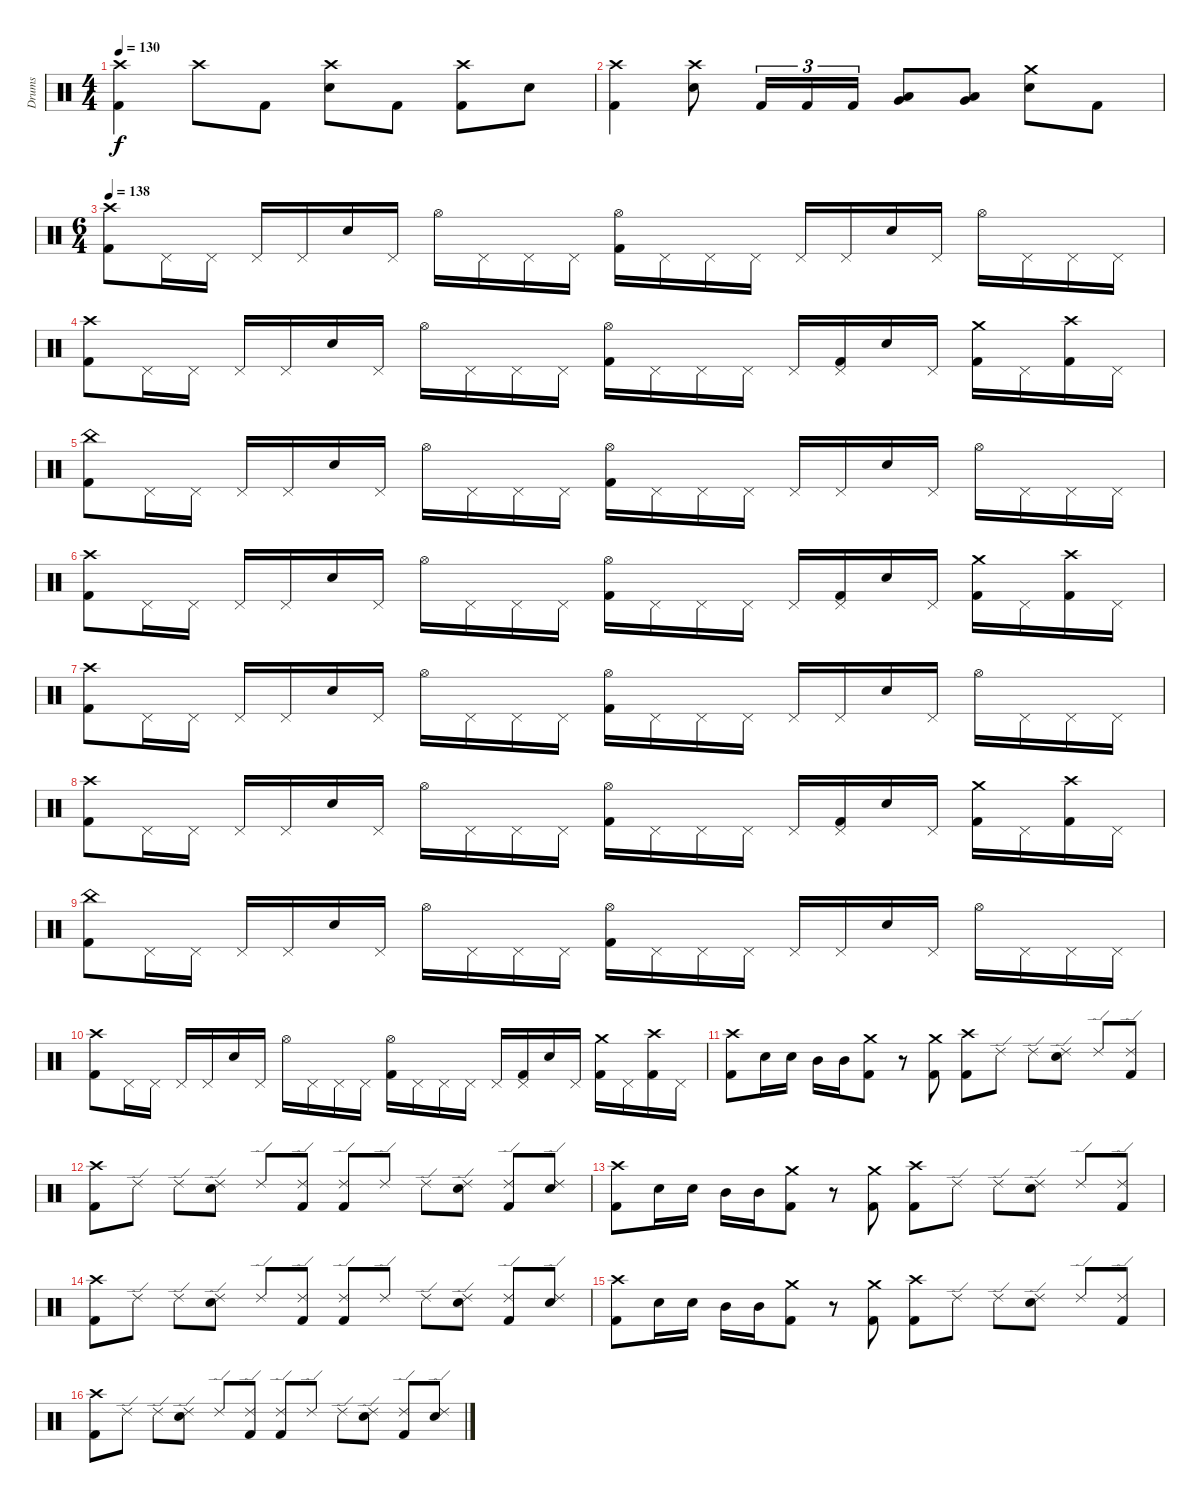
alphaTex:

\track ("Drums" "Drums") {instrument percussion}
\staff {score}
\articulation defaults
\ts (4 4)
\tempo 130
\clef neutral
\ks c
("Crash high (hit)" "Kick (hit) 2").4{dy f} "Crash high (hit)".8 "Kick (hit) 2".8 ("Crash high (hit)" "Electric Snare (hit)").8 "Kick (hit) 2".8 ("Crash high (hit)" "Kick (hit) 2").8 "Electric Snare (hit)".8 |
("Crash high (hit)" "Kick (hit) 2").4 ("Crash high (hit)" "Electric Snare (hit)").8 "Kick (hit) 2".16{tu (3 2)} "Kick (hit) 2".16{tu (3 2)} "Kick (hit) 2".16{tu (3 2)} ("Low Tom (hit)" "Very Low Tom (hit)").8 ("Low Tom (hit)" "Very Low Tom (hit)").8 ("Crash medium (hit)" "Electric Snare (hit)").8 "Kick (hit) 2".8 |
\ts (6 4)
\tempo 138
("Crash high (hit)" "Kick (hit) 2").8 "Pedal Hi-Hat (hit)".16 "Pedal Hi-Hat (hit)".16 "Pedal Hi-Hat (hit)".16 "Pedal Hi-Hat (hit)".16 "Electric Snare (hit)".16 "Pedal Hi-Hat (hit)".16 "Hi-Hat (open)".16 "Pedal Hi-Hat (hit)".16 "Pedal Hi-Hat (hit)".16 "Pedal Hi-Hat (hit)".16 ("Hi-Hat (open)" "Kick (hit) 2").16 "Pedal Hi-Hat (hit)".16 "Pedal Hi-Hat (hit)".16 "Pedal Hi-Hat (hit)".16 "Pedal Hi-Hat (hit)".16 "Pedal Hi-Hat (hit)".16 "Electric Snare (hit)".16 "Pedal Hi-Hat (hit)".16 "Hi-Hat (open)".16 "Pedal Hi-Hat (hit)".16 "Pedal Hi-Hat (hit)".16 "Pedal Hi-Hat (hit)".16 |
("Crash high (hit)" "Kick (hit) 2").8 "Pedal Hi-Hat (hit)".16 "Pedal Hi-Hat (hit)".16 "Pedal Hi-Hat (hit)".16 "Pedal Hi-Hat (hit)".16 "Electric Snare (hit)".16 "Pedal Hi-Hat (hit)".16 "Hi-Hat (open)".16 "Pedal Hi-Hat (hit)".16 "Pedal Hi-Hat (hit)".16 "Pedal Hi-Hat (hit)".16 ("Hi-Hat (open)" "Kick (hit) 2").16 "Pedal Hi-Hat (hit)".16 "Pedal Hi-Hat (hit)".16 "Pedal Hi-Hat (hit)".16 "Pedal Hi-Hat (hit)".16 ("Pedal Hi-Hat (hit)" "Kick (hit) 2").16 "Electric Snare (hit)".16 "Pedal Hi-Hat (hit)".16 ("Crash medium (hit)" "Kick (hit) 2").16 "Pedal Hi-Hat (hit)".16 ("Crash high (hit)" "Kick (hit) 2").16 "Pedal Hi-Hat (hit)".16 |
("China (hit)" "Kick (hit) 2").8 "Pedal Hi-Hat (hit)".16 "Pedal Hi-Hat (hit)".16 "Pedal Hi-Hat (hit)".16 "Pedal Hi-Hat (hit)".16 "Electric Snare (hit)".16 "Pedal Hi-Hat (hit)".16 "Hi-Hat (open)".16 "Pedal Hi-Hat (hit)".16 "Pedal Hi-Hat (hit)".16 "Pedal Hi-Hat (hit)".16 ("Hi-Hat (open)" "Kick (hit) 2").16 "Pedal Hi-Hat (hit)".16 "Pedal Hi-Hat (hit)".16 "Pedal Hi-Hat (hit)".16 "Pedal Hi-Hat (hit)".16 "Pedal Hi-Hat (hit)".16 "Electric Snare (hit)".16 "Pedal Hi-Hat (hit)".16 "Hi-Hat (open)".16 "Pedal Hi-Hat (hit)".16 "Pedal Hi-Hat (hit)".16 "Pedal Hi-Hat (hit)".16 |
("Crash high (hit)" "Kick (hit) 2").8 "Pedal Hi-Hat (hit)".16 "Pedal Hi-Hat (hit)".16 "Pedal Hi-Hat (hit)".16 "Pedal Hi-Hat (hit)".16 "Electric Snare (hit)".16 "Pedal Hi-Hat (hit)".16 "Hi-Hat (open)".16 "Pedal Hi-Hat (hit)".16 "Pedal Hi-Hat (hit)".16 "Pedal Hi-Hat (hit)".16 ("Hi-Hat (open)" "Kick (hit) 2").16 "Pedal Hi-Hat (hit)".16 "Pedal Hi-Hat (hit)".16 "Pedal Hi-Hat (hit)".16 "Pedal Hi-Hat (hit)".16 ("Pedal Hi-Hat (hit)" "Kick (hit) 2").16 "Electric Snare (hit)".16 "Pedal Hi-Hat (hit)".16 ("Crash medium (hit)" "Kick (hit) 2").16 "Pedal Hi-Hat (hit)".16 ("Crash high (hit)" "Kick (hit) 2").16 "Pedal Hi-Hat (hit)".16 |
("Crash high (hit)" "Kick (hit) 2").8 "Pedal Hi-Hat (hit)".16 "Pedal Hi-Hat (hit)".16 "Pedal Hi-Hat (hit)".16 "Pedal Hi-Hat (hit)".16 "Electric Snare (hit)".16 "Pedal Hi-Hat (hit)".16 "Hi-Hat (open)".16 "Pedal Hi-Hat (hit)".16 "Pedal Hi-Hat (hit)".16 "Pedal Hi-Hat (hit)".16 ("Hi-Hat (open)" "Kick (hit) 2").16 "Pedal Hi-Hat (hit)".16 "Pedal Hi-Hat (hit)".16 "Pedal Hi-Hat (hit)".16 "Pedal Hi-Hat (hit)".16 "Pedal Hi-Hat (hit)".16 "Electric Snare (hit)".16 "Pedal Hi-Hat (hit)".16 "Hi-Hat (open)".16 "Pedal Hi-Hat (hit)".16 "Pedal Hi-Hat (hit)".16 "Pedal Hi-Hat (hit)".16 |
("Crash high (hit)" "Kick (hit) 2").8 "Pedal Hi-Hat (hit)".16 "Pedal Hi-Hat (hit)".16 "Pedal Hi-Hat (hit)".16 "Pedal Hi-Hat (hit)".16 "Electric Snare (hit)".16 "Pedal Hi-Hat (hit)".16 "Hi-Hat (open)".16 "Pedal Hi-Hat (hit)".16 "Pedal Hi-Hat (hit)".16 "Pedal Hi-Hat (hit)".16 ("Hi-Hat (open)" "Kick (hit) 2").16 "Pedal Hi-Hat (hit)".16 "Pedal Hi-Hat (hit)".16 "Pedal Hi-Hat (hit)".16 "Pedal Hi-Hat (hit)".16 ("Pedal Hi-Hat (hit)" "Kick (hit) 2").16 "Electric Snare (hit)".16 "Pedal Hi-Hat (hit)".16 ("Crash medium (hit)" "Kick (hit) 2").16 "Pedal Hi-Hat (hit)".16 ("Crash high (hit)" "Kick (hit) 2").16 "Pedal Hi-Hat (hit)".16 |
("China (hit)" "Kick (hit) 2").8 "Pedal Hi-Hat (hit)".16 "Pedal Hi-Hat (hit)".16 "Pedal Hi-Hat (hit)".16 "Pedal Hi-Hat (hit)".16 "Electric Snare (hit)".16 "Pedal Hi-Hat (hit)".16 "Hi-Hat (open)".16 "Pedal Hi-Hat (hit)".16 "Pedal Hi-Hat (hit)".16 "Pedal Hi-Hat (hit)".16 ("Hi-Hat (open)" "Kick (hit) 2").16 "Pedal Hi-Hat (hit)".16 "Pedal Hi-Hat (hit)".16 "Pedal Hi-Hat (hit)".16 "Pedal Hi-Hat (hit)".16 "Pedal Hi-Hat (hit)".16 "Electric Snare (hit)".16 "Pedal Hi-Hat (hit)".16 "Hi-Hat (open)".16 "Pedal Hi-Hat (hit)".16 "Pedal Hi-Hat (hit)".16 "Pedal Hi-Hat (hit)".16 |
("Crash high (hit)" "Kick (hit) 2").8 "Pedal Hi-Hat (hit)".16 "Pedal Hi-Hat (hit)".16 "Pedal Hi-Hat (hit)".16 "Pedal Hi-Hat (hit)".16 "Electric Snare (hit)".16 "Pedal Hi-Hat (hit)".16 "Hi-Hat (open)".16 "Pedal Hi-Hat (hit)".16 "Pedal Hi-Hat (hit)".16 "Pedal Hi-Hat (hit)".16 ("Hi-Hat (open)" "Kick (hit) 2").16 "Pedal Hi-Hat (hit)".16 "Pedal Hi-Hat (hit)".16 "Pedal Hi-Hat (hit)".16 "Pedal Hi-Hat (hit)".16 ("Pedal Hi-Hat (hit)" "Kick (hit) 2").16 "Electric Snare (hit)".16 "Pedal Hi-Hat (hit)".16 ("Crash medium (hit)" "Kick (hit) 2").16 "Pedal Hi-Hat (hit)".16 ("Crash high (hit)" "Kick (hit) 2").16 "Pedal Hi-Hat (hit)".16 |
("Crash high (hit)" "Kick (hit) 2").8 "Electric Snare (hit)".16 "Electric Snare (hit)".16 "Mid Tom (hit)".16 "Mid Tom (hit)".16 ("Crash medium (hit)" "Kick (hit) 2").8 r.8 ("Crash medium (hit)" "Kick (hit) 2").8 ("Crash high (hit)" "Kick (hit) 2").8 "Ride (edge) 2".8 "Ride (edge) 2".8 ("Ride (edge) 2" "Electric Snare (hit)").8 "Ride (edge) 2".8 ("Ride (edge) 2" "Kick (hit) 2").8 |
("Crash high (hit)" "Kick (hit) 2").8 "Ride (edge) 2".8 "Ride (edge) 2".8 ("Ride (edge) 2" "Electric Snare (hit)").8 "Ride (edge) 2".8 ("Ride (edge) 2" "Kick (hit) 2").8 ("Ride (edge) 2" "Kick (hit) 2").8 "Ride (edge) 2".8 "Ride (edge) 2".8 ("Ride (edge) 2" "Electric Snare (hit)").8 ("Ride (edge) 2" "Kick (hit) 2").8 ("Ride (edge) 2" "Electric Snare (hit)").8 |
("Crash high (hit)" "Kick (hit) 2").8 "Electric Snare (hit)".16 "Electric Snare (hit)".16 "Mid Tom (hit)".16 "Mid Tom (hit)".16 ("Crash medium (hit)" "Kick (hit) 2").8 r.8 ("Crash medium (hit)" "Kick (hit) 2").8 ("Crash high (hit)" "Kick (hit) 2").8 "Ride (edge) 2".8 "Ride (edge) 2".8 ("Ride (edge) 2" "Electric Snare (hit)").8 "Ride (edge) 2".8 ("Ride (edge) 2" "Kick (hit) 2").8 |
("Crash high (hit)" "Kick (hit) 2").8 "Ride (edge) 2".8 "Ride (edge) 2".8 ("Ride (edge) 2" "Electric Snare (hit)").8 "Ride (edge) 2".8 ("Ride (edge) 2" "Kick (hit) 2").8 ("Ride (edge) 2" "Kick (hit) 2").8 "Ride (edge) 2".8 "Ride (edge) 2".8 ("Ride (edge) 2" "Electric Snare (hit)").8 ("Ride (edge) 2" "Kick (hit) 2").8 ("Ride (edge) 2" "Electric Snare (hit)").8 |
("Crash high (hit)" "Kick (hit) 2").8 "Electric Snare (hit)".16 "Electric Snare (hit)".16 "Mid Tom (hit)".16 "Mid Tom (hit)".16 ("Crash medium (hit)" "Kick (hit) 2").8 r.8 ("Crash medium (hit)" "Kick (hit) 2").8 ("Crash high (hit)" "Kick (hit) 2").8 "Ride (edge) 2".8 "Ride (edge) 2".8 ("Ride (edge) 2" "Electric Snare (hit)").8 "Ride (edge) 2".8 ("Ride (edge) 2" "Kick (hit) 2").8 |
("Crash high (hit)" "Kick (hit) 2").8 "Ride (edge) 2".8 "Ride (edge) 2".8 ("Ride (edge) 2" "Electric Snare (hit)").8 "Ride (edge) 2".8 ("Ride (edge) 2" "Kick (hit) 2").8 ("Ride (edge) 2" "Kick (hit) 2").8 "Ride (edge) 2".8 "Ride (edge) 2".8 ("Ride (edge) 2" "Electric Snare (hit)").8 ("Ride (edge) 2" "Kick (hit) 2").8 ("Ride (edge) 2" "Electric Snare (hit)").8
